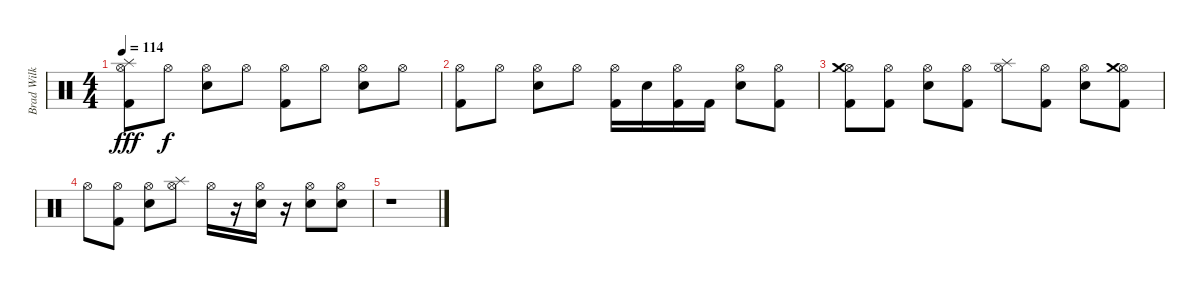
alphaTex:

\track ("Brad Wilk" "Brad Wilk") {instrument percussion}
\staff {score}
\articulation defaults
\ts (4 4)
\tempo 114
\clef neutral
\ks c
("Hi-Hat (open)" "Kick (hit) 2" "Splash (hit)").8{dy fff} "Hi-Hat (open)".8{dy f} ("Hi-Hat (open)" "Snare (hit) 2").8 "Hi-Hat (open)".8 ("Hi-Hat (open)" "Kick (hit) 2").8 "Hi-Hat (open)".8 ("Hi-Hat (open)" "Snare (hit) 2").8 "Hi-Hat (open)".8 |
("Hi-Hat (open)" "Kick (hit) 2").8 "Hi-Hat (open)".8 ("Hi-Hat (open)" "Snare (hit) 2").8 "Hi-Hat (open)".8 ("Hi-Hat (open)" "Kick (hit) 2").16 "Snare (hit) 2".16 ("Hi-Hat (open)" "Kick (hit) 2").16 "Kick (hit) 2".16 ("Hi-Hat (open)" "Snare (hit) 2").8 ("Hi-Hat (open)" "Kick (hit) 2").8 |
("Hi-Hat (open)" "Kick (hit) 2" "Crash medium (hit)").8 ("Hi-Hat (open)" "Kick (hit) 2").8 ("Hi-Hat (open)" "Snare (hit) 2").8 ("Hi-Hat (open)" "Kick (hit) 2").8 ("Hi-Hat (open)" "Splash (hit)").8 ("Hi-Hat (open)" "Kick (hit) 2").8 ("Hi-Hat (open)" "Snare (hit) 2").8 ("Hi-Hat (open)" "Kick (hit) 2" "Crash medium (hit)").8 |
"Hi-Hat (open)".8 ("Hi-Hat (open)" "Kick (hit) 2").8 ("Hi-Hat (open)" "Snare (hit) 2").8 ("Hi-Hat (open)" "Splash (hit)").8 "Hi-Hat (open)".16 r.16 ("Hi-Hat (open)" "Snare (hit) 2").16 r.16 ("Hi-Hat (open)" "Snare (hit) 2").8 ("Hi-Hat (open)" "Snare (hit) 2").8 |
r.1
